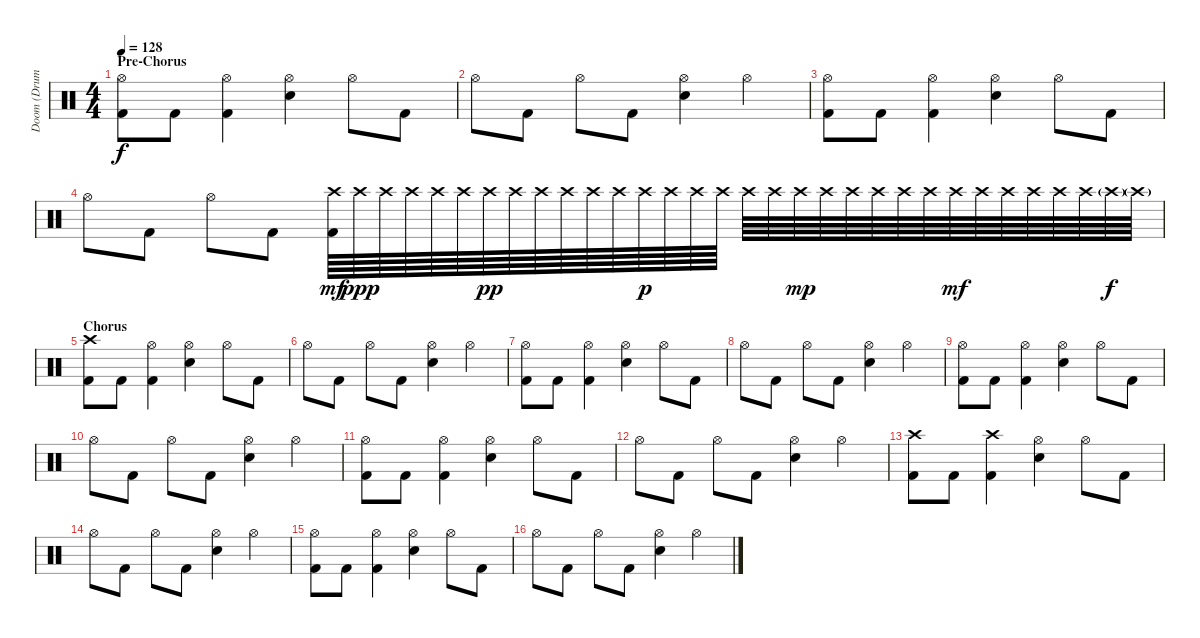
\track ("Doom (Drums)" "Doom (Drum") {instrument percussion}
\staff {score}
\articulation defaults
\ts (4 4)
\section ("" "Pre-Chorus")
\tempo 128
\clef neutral
\ks c
("Hi-Hat (open)" "Kick (hit) 2").8{dy f} "Kick (hit) 2".8 ("Hi-Hat (open)" "Kick (hit) 2").4 ("Hi-Hat (open)" "Electric Snare (hit)").4 "Hi-Hat (open)".8 "Kick (hit) 2".8 |
"Hi-Hat (open)".8 "Kick (hit) 2".8 "Hi-Hat (open)".8 "Kick (hit) 2".8 ("Hi-Hat (open)" "Electric Snare (hit)").4 "Hi-Hat (open)".4 |
("Hi-Hat (open)" "Kick (hit) 2").8 "Kick (hit) 2".8 ("Hi-Hat (open)" "Kick (hit) 2").4 ("Hi-Hat (open)" "Electric Snare (hit)").4 "Hi-Hat (open)".8 "Kick (hit) 2".8 |
"Hi-Hat (open)".8 "Kick (hit) 2".8 "Hi-Hat (open)".8 "Kick (hit) 2".8 ("Crash high (hit)" "Kick (hit) 2").64{dy mf} "Crash high (hit)".64{dy ppp} "Crash high (hit)".64 "Crash high (hit)".64 "Crash high (hit)".64 "Crash high (hit)".64 "Crash high (hit)".64{dy pp} "Crash high (hit)".64 "Crash high (hit)".64 "Crash high (hit)".64 "Crash high (hit)".64 "Crash high (hit)".64 "Crash high (hit)".64{dy p} "Crash high (hit)".64 "Crash high (hit)".64 "Crash high (hit)".64 "Crash high (hit)".64 "Crash high (hit)".64 "Crash high (hit)".64{dy mp} "Crash high (hit)".64 "Crash high (hit)".64 "Crash high (hit)".64 "Crash high (hit)".64 "Crash high (hit)".64 "Crash high (hit)".64{dy mf} "Crash high (hit)".64 "Crash high (hit)".64 "Crash high (hit)".64 "Crash high (hit)".64 "Crash high (hit)".64 "Crash high (hit)"{g}.64{dy f} "Crash high (hit)"{g}.64 |
\section ("" "Chorus")
("Crash high (hit)" "Kick (hit) 2").8 "Kick (hit) 2".8 ("Hi-Hat (open)" "Kick (hit) 2").4 ("Hi-Hat (open)" "Electric Snare (hit)").4 "Hi-Hat (open)".8 "Kick (hit) 2".8 |
"Hi-Hat (open)".8 "Kick (hit) 2".8 "Hi-Hat (open)".8 "Kick (hit) 2".8 ("Hi-Hat (open)" "Electric Snare (hit)").4 "Hi-Hat (open)".4 |
("Hi-Hat (open)" "Kick (hit) 2").8 "Kick (hit) 2".8 ("Hi-Hat (open)" "Kick (hit) 2").4 ("Hi-Hat (open)" "Electric Snare (hit)").4 "Hi-Hat (open)".8 "Kick (hit) 2".8 |
"Hi-Hat (open)".8 "Kick (hit) 2".8 "Hi-Hat (open)".8 "Kick (hit) 2".8 ("Hi-Hat (open)" "Electric Snare (hit)").4 "Hi-Hat (open)".4 |
("Hi-Hat (open)" "Kick (hit) 2").8 "Kick (hit) 2".8 ("Hi-Hat (open)" "Kick (hit) 2").4 ("Hi-Hat (open)" "Electric Snare (hit)").4 "Hi-Hat (open)".8 "Kick (hit) 2".8 |
"Hi-Hat (open)".8 "Kick (hit) 2".8 "Hi-Hat (open)".8 "Kick (hit) 2".8 ("Hi-Hat (open)" "Electric Snare (hit)").4 "Hi-Hat (open)".4 |
("Hi-Hat (open)" "Kick (hit) 2").8 "Kick (hit) 2".8 ("Hi-Hat (open)" "Kick (hit) 2").4 ("Hi-Hat (open)" "Electric Snare (hit)").4 "Hi-Hat (open)".8 "Kick (hit) 2".8 |
"Hi-Hat (open)".8 "Kick (hit) 2".8 "Hi-Hat (open)".8 "Kick (hit) 2".8 ("Hi-Hat (open)" "Electric Snare (hit)").4 "Hi-Hat (open)".4 |
("Crash high (hit)" "Kick (hit) 2").8 "Kick (hit) 2".8 ("Crash high (hit)" "Kick (hit) 2").4 ("Hi-Hat (open)" "Electric Snare (hit)").4 "Hi-Hat (open)".8 "Kick (hit) 2".8 |
"Hi-Hat (open)".8 "Kick (hit) 2".8 "Hi-Hat (open)".8 "Kick (hit) 2".8 ("Hi-Hat (open)" "Electric Snare (hit)").4 "Hi-Hat (open)".4 |
("Hi-Hat (open)" "Kick (hit) 2").8 "Kick (hit) 2".8 ("Hi-Hat (open)" "Kick (hit) 2").4 ("Hi-Hat (open)" "Electric Snare (hit)").4 "Hi-Hat (open)".8 "Kick (hit) 2".8 |
"Hi-Hat (open)".8 "Kick (hit) 2".8 "Hi-Hat (open)".8 "Kick (hit) 2".8 ("Hi-Hat (open)" "Electric Snare (hit)").4 "Hi-Hat (open)".4
